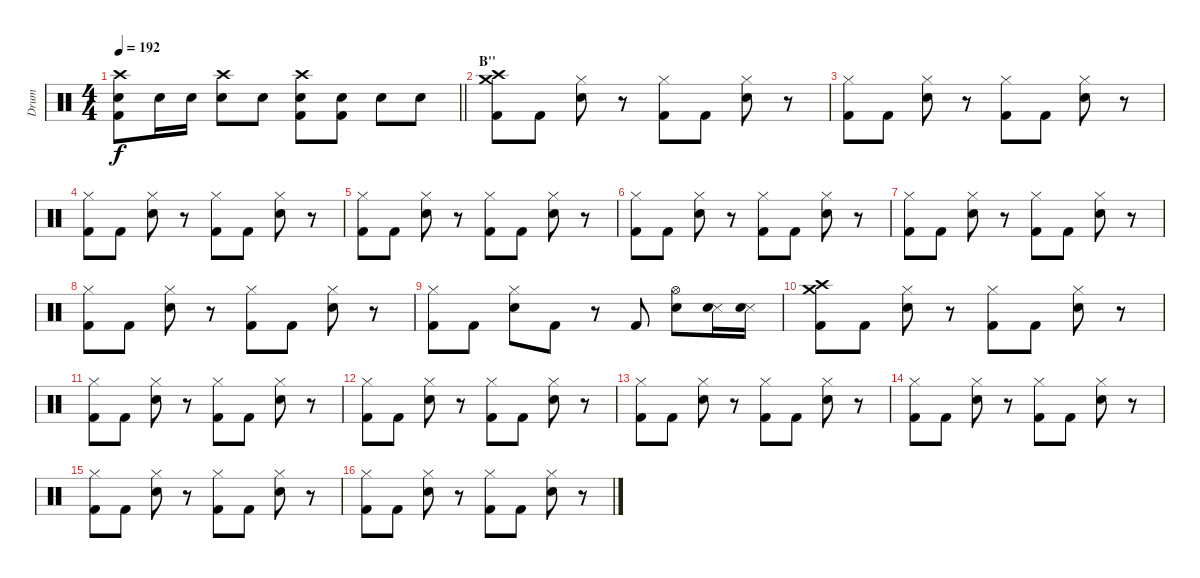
\track ("Drum" "Drum") {instrument percussion}
\staff {score}
\articulation defaults
\ts (4 4)
\tempo 192
\clef neutral
\barLineRight lightlight
\ks c
("Crash high (hit)" "Electric Snare (hit)" "Kick (hit) 2").8{dy f} "Electric Snare (hit)".16 "Electric Snare (hit)".16 ("Crash high (hit)" "Electric Snare (hit)").8 "Electric Snare (hit)".8 ("Crash high (hit)" "Electric Snare (hit)" "Kick (hit) 2").8 ("Electric Snare (hit)" "Kick (hit) 2").8 "Electric Snare (hit)".8 "Electric Snare (hit)".8 |
\section ("" "B''")
("Crash high (hit)" "Crash medium (hit)" "Kick (hit) 2").8 "Kick (hit) 2".8 ("Hi-Hat (closed)" "Electric Snare (hit)").8 r.8 ("Hi-Hat (closed)" "Kick (hit) 2").8 "Kick (hit) 2".8 ("Hi-Hat (closed)" "Electric Snare (hit)").8 r.8 |
("Hi-Hat (closed)" "Kick (hit) 2").8 "Kick (hit) 2".8 ("Hi-Hat (closed)" "Electric Snare (hit)").8 r.8 ("Hi-Hat (closed)" "Kick (hit) 2").8 "Kick (hit) 2".8 ("Hi-Hat (closed)" "Electric Snare (hit)").8 r.8 |
("Hi-Hat (closed)" "Kick (hit) 2").8 "Kick (hit) 2".8 ("Hi-Hat (closed)" "Electric Snare (hit)").8 r.8 ("Hi-Hat (closed)" "Kick (hit) 2").8 "Kick (hit) 2".8 ("Hi-Hat (closed)" "Electric Snare (hit)").8 r.8 |
("Hi-Hat (closed)" "Kick (hit) 2").8 "Kick (hit) 2".8 ("Hi-Hat (closed)" "Electric Snare (hit)").8 r.8 ("Hi-Hat (closed)" "Kick (hit) 2").8 "Kick (hit) 2".8 ("Hi-Hat (closed)" "Electric Snare (hit)").8 r.8 |
("Hi-Hat (closed)" "Kick (hit) 2").8 "Kick (hit) 2".8 ("Hi-Hat (closed)" "Electric Snare (hit)").8 r.8 ("Hi-Hat (closed)" "Kick (hit) 2").8 "Kick (hit) 2".8 ("Hi-Hat (closed)" "Electric Snare (hit)").8 r.8 |
("Hi-Hat (closed)" "Kick (hit) 2").8 "Kick (hit) 2".8 ("Hi-Hat (closed)" "Electric Snare (hit)").8 r.8 ("Hi-Hat (closed)" "Kick (hit) 2").8 "Kick (hit) 2".8 ("Hi-Hat (closed)" "Electric Snare (hit)").8 r.8 |
("Hi-Hat (closed)" "Kick (hit) 2").8 "Kick (hit) 2".8 ("Hi-Hat (closed)" "Electric Snare (hit)").8 r.8 ("Hi-Hat (closed)" "Kick (hit) 2").8 "Kick (hit) 2".8 ("Hi-Hat (closed)" "Electric Snare (hit)").8 r.8 |
("Hi-Hat (closed)" "Kick (hit) 2").8 "Kick (hit) 2".8 ("Hi-Hat (closed)" "Electric Snare (hit)").8 "Kick (hit) 2".8 r.8 "Kick (hit) 2".8 ("Hi-Hat (open)" "Electric Snare (hit)").8 ("Snare (side stick) 3" "Snare (hit) 2").16 ("Snare (side stick) 3" "Snare (hit) 2").16 |
("Crash medium (hit)" "Crash high (hit)" "Kick (hit) 2").8 "Kick (hit) 2".8 ("Hi-Hat (closed)" "Electric Snare (hit)").8 r.8 ("Hi-Hat (closed)" "Kick (hit) 2").8 "Kick (hit) 2".8 ("Hi-Hat (closed)" "Electric Snare (hit)").8 r.8 |
("Hi-Hat (closed)" "Kick (hit) 2").8 "Kick (hit) 2".8 ("Hi-Hat (closed)" "Electric Snare (hit)").8 r.8 ("Hi-Hat (closed)" "Kick (hit) 2").8 "Kick (hit) 2".8 ("Hi-Hat (closed)" "Electric Snare (hit)").8 r.8 |
("Hi-Hat (closed)" "Kick (hit) 2").8 "Kick (hit) 2".8 ("Hi-Hat (closed)" "Electric Snare (hit)").8 r.8 ("Hi-Hat (closed)" "Kick (hit) 2").8 "Kick (hit) 2".8 ("Hi-Hat (closed)" "Electric Snare (hit)").8 r.8 |
("Hi-Hat (closed)" "Kick (hit) 2").8 "Kick (hit) 2".8 ("Hi-Hat (closed)" "Electric Snare (hit)").8 r.8 ("Hi-Hat (closed)" "Kick (hit) 2").8 "Kick (hit) 2".8 ("Hi-Hat (closed)" "Electric Snare (hit)").8 r.8 |
("Hi-Hat (closed)" "Kick (hit) 2").8 "Kick (hit) 2".8 ("Hi-Hat (closed)" "Electric Snare (hit)").8 r.8 ("Hi-Hat (closed)" "Kick (hit) 2").8 "Kick (hit) 2".8 ("Hi-Hat (closed)" "Electric Snare (hit)").8 r.8 |
("Hi-Hat (closed)" "Kick (hit) 2").8 "Kick (hit) 2".8 ("Hi-Hat (closed)" "Electric Snare (hit)").8 r.8 ("Hi-Hat (closed)" "Kick (hit) 2").8 "Kick (hit) 2".8 ("Hi-Hat (closed)" "Electric Snare (hit)").8 r.8 |
("Hi-Hat (closed)" "Kick (hit) 2").8 "Kick (hit) 2".8 ("Hi-Hat (closed)" "Electric Snare (hit)").8 r.8 ("Hi-Hat (closed)" "Kick (hit) 2").8 "Kick (hit) 2".8 ("Hi-Hat (closed)" "Electric Snare (hit)").8 r.8
